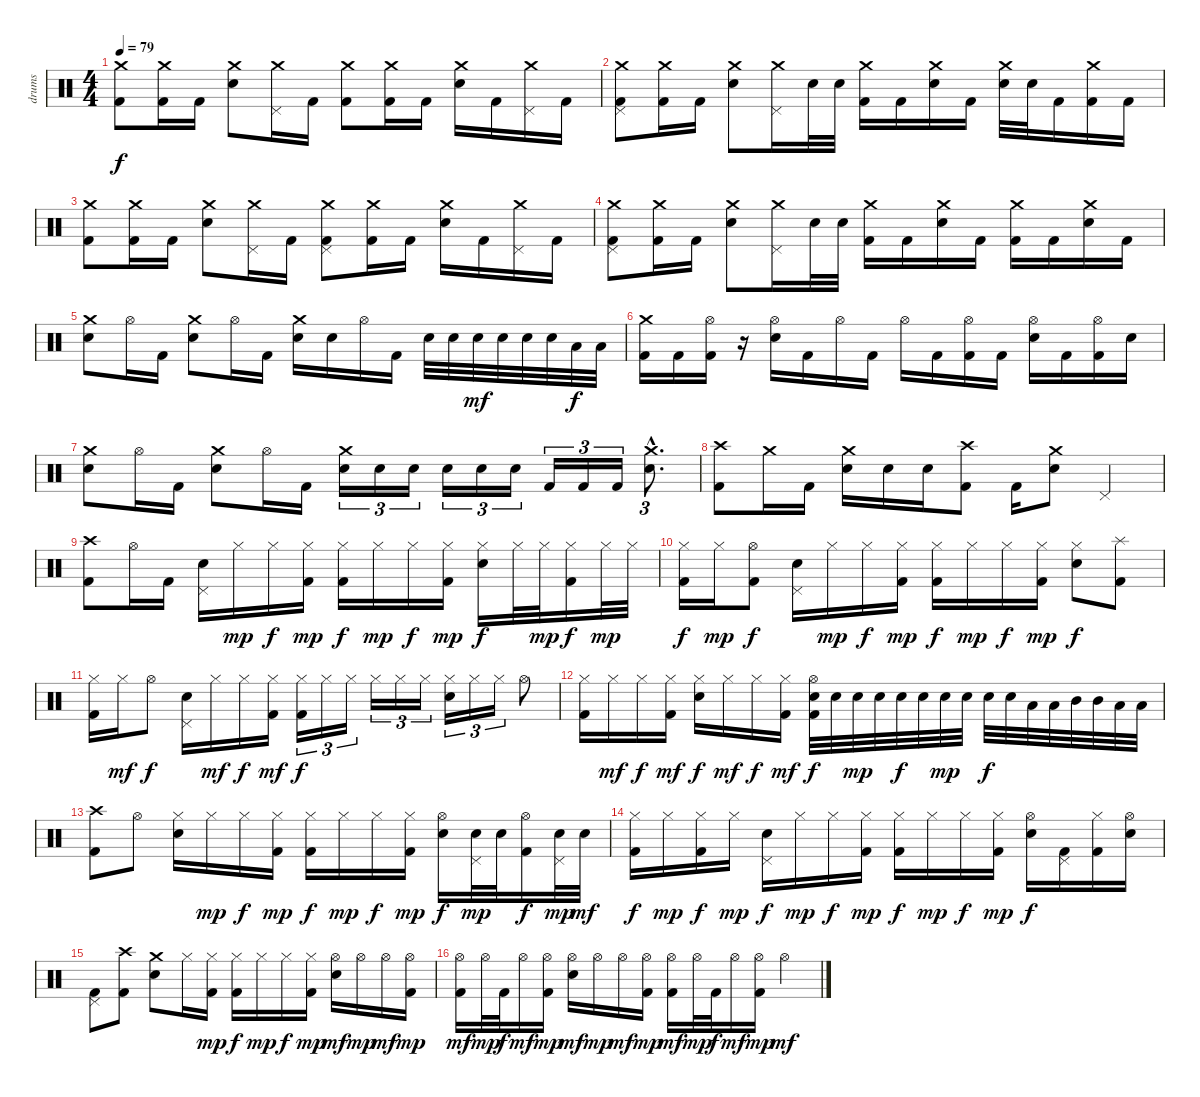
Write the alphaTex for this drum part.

\track ("drums" "drums") {instrument percussion}
\staff {score}
\articulation defaults
\ts (4 4)
\tempo 79
\clef neutral
\ks c
("Crash medium (hit)" "Kick (hit) 2").8{dy f} ("Crash medium (hit)" "Kick (hit) 2").16 "Kick (hit) 2".16 ("Crash medium (hit)" "Electric Snare (hit)").8 ("Crash medium (hit)" "Pedal Hi-Hat (hit)").16 "Kick (hit) 2".16 ("Crash medium (hit)" "Kick (hit) 2").8 ("Crash medium (hit)" "Kick (hit) 2").16 "Kick (hit) 2".16 ("Crash medium (hit)" "Electric Snare (hit)").16 "Kick (hit) 2".16 ("Crash medium (hit)" "Pedal Hi-Hat (hit)").16 "Kick (hit) 2".16 |
("Crash medium (hit)" "Pedal Hi-Hat (hit)" "Kick (hit) 2").8 ("Crash medium (hit)" "Kick (hit) 2").16 "Kick (hit) 2".16 ("Crash medium (hit)" "Electric Snare (hit)").8 ("Crash medium (hit)" "Pedal Hi-Hat (hit)").16 "Electric Snare (hit)".32 "Electric Snare (hit)".32 ("Crash medium (hit)" "Kick (hit) 2").16 "Kick (hit) 2".16 ("Crash medium (hit)" "Electric Snare (hit)").16 "Kick (hit) 2".16 ("Crash medium (hit)" "Electric Snare (hit)").32 "Electric Snare (hit)".32 "Kick (hit) 2".16 ("Crash medium (hit)" "Kick (hit) 2").16 "Kick (hit) 2".16 |
("Crash medium (hit)" "Kick (hit) 2").8 ("Crash medium (hit)" "Kick (hit) 2").16 "Kick (hit) 2".16 ("Crash medium (hit)" "Electric Snare (hit)").8 ("Crash medium (hit)" "Pedal Hi-Hat (hit)").16 "Kick (hit) 2".16 ("Crash medium (hit)" "Pedal Hi-Hat (hit)" "Kick (hit) 2").8 ("Crash medium (hit)" "Kick (hit) 2").16 "Kick (hit) 2".16 ("Crash medium (hit)" "Electric Snare (hit)").16 "Kick (hit) 2".16 ("Crash medium (hit)" "Pedal Hi-Hat (hit)").16 "Kick (hit) 2".16 |
("Crash medium (hit)" "Pedal Hi-Hat (hit)" "Kick (hit) 2").8 ("Crash medium (hit)" "Kick (hit) 2").16 "Kick (hit) 2".16 ("Crash medium (hit)" "Electric Snare (hit)").8 ("Crash medium (hit)" "Pedal Hi-Hat (hit)").16 "Electric Snare (hit)".32 "Electric Snare (hit)".32 ("Crash medium (hit)" "Kick (hit) 2").16 "Kick (hit) 2".16 ("Crash medium (hit)" "Electric Snare (hit)").16 "Kick (hit) 2".16 ("Crash medium (hit)" "Kick (hit) 2").16 "Kick (hit) 2".16 ("Crash medium (hit)" "Electric Snare (hit)").16 "Kick (hit) 2".16 |
("Crash medium (hit)" "Electric Snare (hit)").8 "Hi-Hat (open)".16 "Kick (hit) 2".16 ("Crash medium (hit)" "Electric Snare (hit)").8 "Hi-Hat (open)".16 "Kick (hit) 2".16 ("Crash medium (hit)" "Electric Snare (hit)").16 "Electric Snare (hit)".16 "Hi-Hat (open)".16 "Kick (hit) 2".16 "Electric Snare (hit)".32 "Electric Snare (hit)".32 "Electric Snare (hit)".32{dy mf} "Electric Snare (hit)".32 "Electric Snare (hit)".32 "Electric Snare (hit)".32 "Low Tom (hit)".32{dy f} "Low Tom (hit)".32 |
("Crash medium (hit)" "Kick (hit) 2").16 "Kick (hit) 2".16 ("Hi-Hat (open)" "Kick (hit) 2").16 r.16 ("Hi-Hat (open)" "Electric Snare (hit)").16 "Kick (hit) 2".16 "Hi-Hat (open)".16 "Kick (hit) 2".16 "Hi-Hat (open)".16 "Kick (hit) 2".16 ("Hi-Hat (open)" "Kick (hit) 2").16 "Kick (hit) 2".16 ("Hi-Hat (open)" "Electric Snare (hit)").16 "Kick (hit) 2".16 ("Hi-Hat (open)" "Kick (hit) 2").16 "Electric Snare (hit)".16 |
("Crash medium (hit)" "Electric Snare (hit)").8 "Hi-Hat (open)".16 "Kick (hit) 2".16 ("Crash medium (hit)" "Electric Snare (hit)").8 "Hi-Hat (open)".16 "Kick (hit) 2".16 ("Crash medium (hit)" "Electric Snare (hit)").16{tu (3 2)} "Electric Snare (hit)".16{tu (3 2)} "Electric Snare (hit)".16{tu (3 2)} "Electric Snare (hit)".16{tu (3 2)} "Electric Snare (hit)".16{tu (3 2)} "Electric Snare (hit)".16{tu (3 2)} "Kick (hit) 2".16{tu (3 2)} "Kick (hit) 2".16{tu (3 2)} "Kick (hit) 2".16{tu (3 2)} ("Crash medium (hit)"{hac} "Electric Snare (hit)"{hac}).8{d tu (3 2)} |
("Crash high (hit)" "Kick (hit) 2").8 "Crash medium (hit)".16 "Kick (hit) 2".16 ("Crash medium (hit)" "Electric Snare (hit)").16 "Electric Snare (hit)".16 "Electric Snare (hit)".16 ("Crash high (hit)" "Kick (hit) 2").8 "Kick (hit) 2".16 ("Crash medium (hit)" "Electric Snare (hit)").8 "Pedal Hi-Hat (hit)".4 |
("Crash high (hit)" "Kick (hit) 2").8 "Hi-Hat (open)".16 "Kick (hit) 2".16 ("Pedal Hi-Hat (hit)" "Electric Snare (hit)").16 "Hi-Hat (closed)".16{dy mp} "Hi-Hat (closed)".16{dy f} ("Hi-Hat (closed)" "Kick (hit) 2").16{dy mp} ("Hi-Hat (closed)" "Kick (hit) 2").16{dy f} "Hi-Hat (closed)".16{dy mp} "Hi-Hat (closed)".16{dy f} ("Hi-Hat (closed)" "Kick (hit) 2").16{dy mp} ("Hi-Hat (closed)" "Electric Snare (hit)").16{dy f} "Hi-Hat (closed)".32 "Hi-Hat (closed)".32{dy mp} ("Hi-Hat (closed)" "Kick (hit) 2").16{dy f} "Hi-Hat (closed)".32{dy mp} "Hi-Hat (closed)".32 |
("Hi-Hat (closed)" "Kick (hit) 2").16{dy f} "Hi-Hat (closed)".16{dy mp} ("Hi-Hat (open)" "Kick (hit) 2").8{dy f} ("Pedal Hi-Hat (hit)" "Electric Snare (hit)").16 "Hi-Hat (closed)".16{dy mp} "Hi-Hat (closed)".16{dy f} ("Hi-Hat (closed)" "Kick (hit) 2").16{dy mp} ("Hi-Hat (closed)" "Kick (hit) 2").16{dy f} "Hi-Hat (closed)".16{dy mp} "Hi-Hat (closed)".16{dy f} ("Hi-Hat (closed)" "Kick (hit) 2").16{dy mp} ("Hi-Hat (closed)" "Electric Snare (hit)").8{dy f} ("Splash (hit)" "Kick (hit) 2").8 |
("Hi-Hat (closed)" "Kick (hit) 2").16 "Hi-Hat (closed)".16{dy mf} "Hi-Hat (open)".8{dy f} ("Pedal Hi-Hat (hit)" "Electric Snare (hit)").16 "Hi-Hat (closed)".16{dy mf} "Hi-Hat (closed)".16{dy f} ("Hi-Hat (closed)" "Kick (hit) 2").16{dy mf} ("Hi-Hat (closed)" "Kick (hit) 2").16{tu (3 2) dy f} "Hi-Hat (closed)".16{tu (3 2)} "Hi-Hat (closed)".16{tu (3 2)} "Hi-Hat (closed)".16{tu (3 2)} "Hi-Hat (closed)".16{tu (3 2)} "Hi-Hat (closed)".16{tu (3 2)} ("Hi-Hat (closed)" "Electric Snare (hit)").16{tu (3 2)} "Hi-Hat (closed)".16{tu (3 2)} "Hi-Hat (closed)".16{tu (3 2)} "Hi-Hat (open)".8 |
("Hi-Hat (closed)" "Kick (hit) 2").16 "Hi-Hat (closed)".16{dy mf} "Hi-Hat (closed)".16{dy f} ("Hi-Hat (closed)" "Kick (hit) 2").16{dy mf} ("Hi-Hat (closed)" "Electric Snare (hit)").16{dy f} "Hi-Hat (closed)".16{dy mf} "Hi-Hat (closed)".16{dy f} ("Hi-Hat (closed)" "Kick (hit) 2").16{dy mf} ("Hi-Hat (open)" "Electric Snare (hit)" "Kick (hit) 2").32{dy f} "Electric Snare (hit)".32 "Electric Snare (hit)".32{dy mp} "Electric Snare (hit)".32 "Electric Snare (hit)".32{dy f} "Electric Snare (hit)".32 "Electric Snare (hit)".32{dy mp} "Electric Snare (hit)".32 "Electric Snare (hit)".32{dy f} "Electric Snare (hit)".32 "Low Tom (hit)".32 "Low Tom (hit)".32 "Mid Tom (hit)".32 "Mid Tom (hit)".32 "Low Tom (hit)".32 "Low Tom (hit)".32 |
("Crash high (hit)" "Kick (hit) 2").8 "Hi-Hat (open)".8 ("Hi-Hat (closed)" "Electric Snare (hit)").16 "Hi-Hat (closed)".16{dy mp} "Hi-Hat (closed)".16{dy f} ("Hi-Hat (closed)" "Kick (hit) 2").16{dy mp} ("Hi-Hat (closed)" "Kick (hit) 2").16{dy f} "Hi-Hat (closed)".16{dy mp} "Hi-Hat (closed)".16{dy f} ("Hi-Hat (closed)" "Kick (hit) 2").16{dy mp} ("Hi-Hat (open)" "Electric Snare (hit)").16{dy f} ("Pedal Hi-Hat (hit)" "Electric Snare (hit)").32{dy mp} "Electric Snare (hit)".32 ("Hi-Hat (open)" "Kick (hit) 2").16{dy f} ("Pedal Hi-Hat (hit)" "Electric Snare (hit)").32{dy mp} "Electric Snare (hit)".32{dy mf} |
("Hi-Hat (closed)" "Kick (hit) 2").16{dy f} "Hi-Hat (closed)".16{dy mp} ("Hi-Hat (closed)" "Kick (hit) 2").16{dy f} "Hi-Hat (closed)".16{dy mp} ("Pedal Hi-Hat (hit)" "Electric Snare (hit)").16{dy f} "Hi-Hat (closed)".16{dy mp} "Hi-Hat (closed)".16{dy f} ("Hi-Hat (closed)" "Kick (hit) 2").16{dy mp} ("Hi-Hat (closed)" "Kick (hit) 2").16{dy f} "Hi-Hat (closed)".16{dy mp} "Hi-Hat (closed)".16{dy f} ("Hi-Hat (closed)" "Kick (hit) 2").16{dy mp} ("Hi-Hat (open)" "Electric Snare (hit)").16{dy f} ("Pedal Hi-Hat (hit)" "Kick (hit) 2").16 ("Hi-Hat (closed)" "Kick (hit) 2").16 ("Hi-Hat (open)" "Electric Snare (hit)").16 |
("Pedal Hi-Hat (hit)" "Kick (hit) 2").8 ("Crash high (hit)" "Kick (hit) 2").8 ("Crash medium (hit)" "Electric Snare (hit)").8 "Hi-Hat (closed)".16 ("Hi-Hat (closed)" "Kick (hit) 2").16{dy mp} ("Hi-Hat (closed)" "Kick (hit) 2").16{dy f} "Hi-Hat (closed)".16{dy mp} "Hi-Hat (closed)".16{dy f} ("Hi-Hat (closed)" "Kick (hit) 2").16{dy mp} ("Hi-Hat (open)" "Electric Snare (hit)").16{dy mf} "Hi-Hat (open)".16{dy mp} "Hi-Hat (open)".16{dy mf} ("Hi-Hat (open)" "Kick (hit) 2").16{dy mp} |
("Hi-Hat (open)" "Kick (hit) 2").16{dy mf} "Hi-Hat (open)".32{dy mp} "Kick (hit) 2".32{dy f} "Hi-Hat (open)".16{dy mf} ("Hi-Hat (open)" "Kick (hit) 2").16{dy mp} ("Hi-Hat (open)" "Electric Snare (hit)").16{dy mf} "Hi-Hat (open)".16{dy mp} "Hi-Hat (open)".16{dy mf} ("Hi-Hat (open)" "Kick (hit) 2").16{dy mp} ("Hi-Hat (open)" "Kick (hit) 2").16{dy mf} "Hi-Hat (open)".32{dy mp} "Kick (hit) 2".32{dy f} "Hi-Hat (open)".16{dy mf} ("Hi-Hat (open)" "Kick (hit) 2").16{dy mp} "Hi-Hat (open)".4{dy mf}
